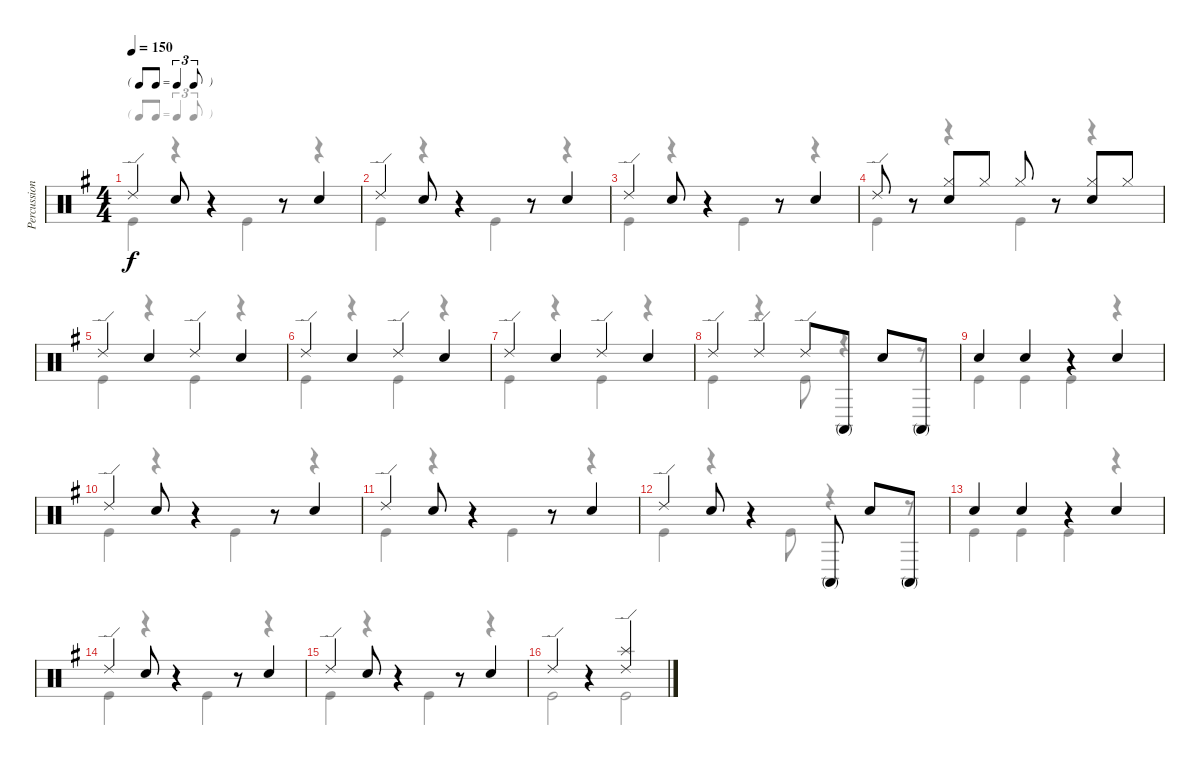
\track ("Percussion" "Percussion") {instrument percussion}
\staff {score}
\articulation defaults
\voice
\ts (4 4)
\tf triplet8th
\tempo 150
\clef neutral
\ks g "Ride (edge) 2".4{dy f} "Electric Snare (hit)".8
r.4 r.8 "Electric Snare (hit)".4 |
"Ride (edge) 2".4 "Electric Snare (hit)".8 r.4 r.8 "Electric Snare (hit)".4 |
"Ride (edge) 2".4 "Electric Snare (hit)".8 r.4 r.8 "Electric Snare (hit)".4 |
"Ride (edge) 2".8 r.8 ("Electric Snare (hit)" "Hi-Hat (closed)").8 "Hi-Hat (closed)".8 "Hi-Hat (closed)".8 r.8 ("Hi-Hat (closed)" "Electric Snare (hit)").8 "Hi-Hat (closed)".8 |
"Ride (edge) 2".4 "Electric Snare (hit)".4 "Ride (edge) 2".4 "Electric Snare (hit)".4 |
"Ride (edge) 2".4 "Electric Snare (hit)".4 "Ride (edge) 2".4 "Electric Snare (hit)".4 |
"Ride (edge) 2".4 "Electric Snare (hit)".4 "Ride (edge) 2".4 "Electric Snare (hit)".4 |
"Ride (edge) 2".4 "Ride (edge) 2".4 "Ride (edge) 2".8 "Conga high (mute)".8 "Electric Snare (hit)".8 "Conga high (mute)".8 |
"Electric Snare (hit)".4 "Electric Snare (hit)".4 r.4 "Electric Snare (hit)".4 |
"Ride (edge) 2".4 "Electric Snare (hit)".8 r.4 r.8 "Electric Snare (hit)".4 |
"Ride (edge) 2".4 "Electric Snare (hit)".8 r.4 r.8 "Electric Snare (hit)".4 |
"Ride (edge) 2".4 "Electric Snare (hit)".8 r.4 "Conga high (mute)".8 "Electric Snare (hit)".8 "Conga high (mute)".8 |
"Electric Snare (hit)".4 "Electric Snare (hit)".4 r.4 "Electric Snare (hit)".4 |
"Ride (edge) 2".4 "Electric Snare (hit)".8 r.4 r.8 "Electric Snare (hit)".4 |
"Ride (edge) 2".4 "Electric Snare (hit)".8 r.4 r.8 "Electric Snare (hit)".4 |
"Ride (edge) 2".4 r.4 ("Splash (hit)" "Ride (edge) 2").2
\voice
\clef neutral
\ottava regular
\simile none
\ks g "Kick (hit)".4{dy f}
r.4 "Kick (hit)".4 r.4 |
"Kick (hit)".4 r.4 "Kick (hit)".4 r.4 |
"Kick (hit)".4 r.4 "Kick (hit)".4 r.4 |
"Kick (hit)".4 r.4 "Kick (hit)".4 r.4 |
"Kick (hit)".4 r.4 "Kick (hit)".4 r.4 |
"Kick (hit)".4 r.4 "Kick (hit)".4 r.4 |
"Kick (hit)".4 r.4 "Kick (hit)".4 r.4 |
"Kick (hit)".4 r.4 "Kick (hit)".8 r.4 r.8 |
"Kick (hit)".4 "Kick (hit)".4 "Kick (hit)".4 r.4 |
"Kick (hit)".4 r.4 "Kick (hit)".4 r.4 |
"Kick (hit)".4 r.4 "Kick (hit)".4 r.4 |
"Kick (hit)".4 r.4 "Kick (hit)".8 r.4 r.8 |
"Kick (hit)".4 "Kick (hit)".4 "Kick (hit)".4 r.4 |
"Kick (hit)".4 r.4 "Kick (hit)".4 r.4 |
"Kick (hit)".4 r.4 "Kick (hit)".4 r.4 |
"Kick (hit)".2 "Kick (hit)".2
